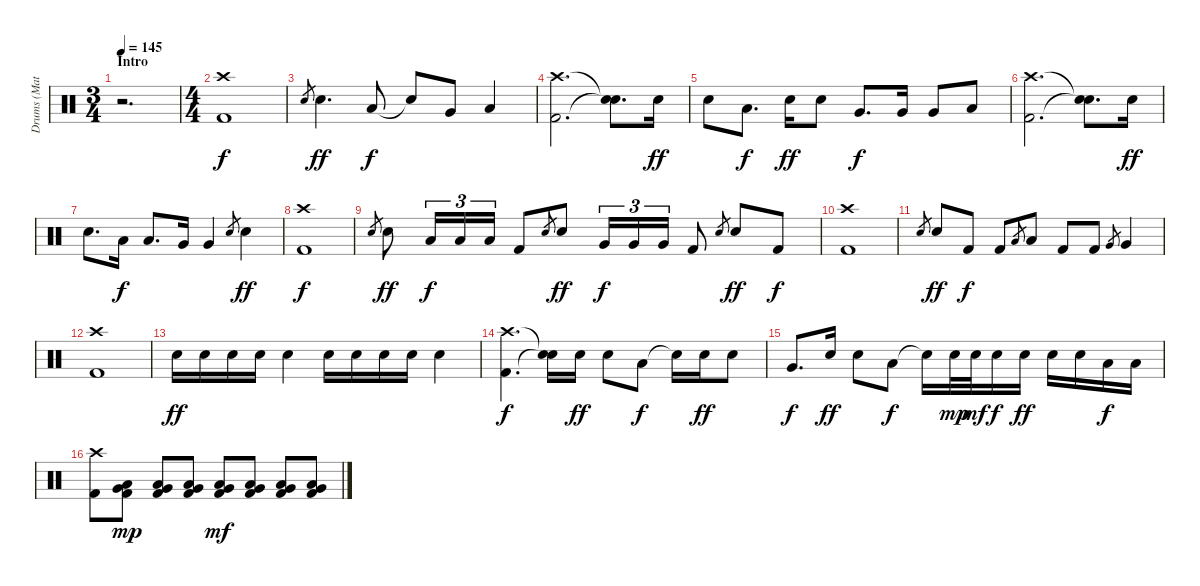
\track ("Drums (Matt)" "Drums (Mat") {instrument percussion}
\staff {score}
\articulation defaults
\ts (3 4)
\section ("" "Intro")
\tempo 145
\clef neutral
\ks c
r.2{d dy f} |
\ts (4 4)
("Crash high (hit)" "Kick (hit) 2").1 |
"Snare (hit) 2".8{gr} "Snare (hit) 2".4{d dy ff} "Low Tom (hit)".8{dy f} "Snare (hit)"{t}.8 "Very Low Tom (hit)".8 "Low Floor Tom (hit)".4 |
("Crash high (hit)" "Kick (hit) 2").2{d} ("Snare (hit)"{t} "Snare (hit)"{t}).8{d} "Snare (hit) 2".16{dy ff} |
"Snare (hit) 2".8 "Low Tom (hit)".8{d dy f} "Snare (hit) 2".16{dy ff} "Snare (hit) 2".8 "Very Low Tom (hit)".8{d dy f} "Very Low Tom (hit)".16 "Very Low Tom (hit)".8 "Low Floor Tom (hit)".8 |
("Crash high (hit)" "Kick (hit) 2").2{d} ("Snare (hit)"{t} "Snare (hit)"{t}).8{d} "Snare (hit) 2".16{dy ff} |
"Snare (hit) 2".8{d} "Low Tom (hit)".16{dy f} "Low Tom (hit)".8{d} "Very Low Tom (hit)".16 "Very Low Tom (hit)".4 "Snare (hit) 2".8{gr} "Snare (hit) 2".4{dy ff} |
("Crash high (hit)" "Kick (hit) 2").1{dy f} |
"Snare (hit) 2".8{gr} "Snare (hit) 2".8{dy ff} "Low Tom (hit)".16{tu (3 2) dy f} "Low Tom (hit)".16{tu (3 2)} "Low Tom (hit)".16{tu (3 2)} "Kick (hit) 2".8 "Snare (hit) 2".8{gr} "Snare (hit) 2".8{dy ff} "Very Low Tom (hit)".16{tu (3 2) dy f} "Very Low Tom (hit)".16{tu (3 2)} "Very Low Tom (hit)".16{tu (3 2)} "Kick (hit) 2".8 "Snare (hit) 2".8{gr} "Snare (hit) 2".8{dy ff} "Kick (hit) 2".8{dy f} |
("Crash high (hit)" "Kick (hit) 2").1 |
"Snare (hit) 2".8{gr} "Snare (hit) 2".8{dy ff} "Kick (hit) 2".8{dy f} "Kick (hit) 2".8 "Low Tom (hit)".8{gr} "Low Tom (hit)".8 "Kick (hit) 2".8 "Kick (hit) 2".8 "Very Low Tom (hit)".8{gr} "Very Low Tom (hit)".4 |
("Crash high (hit)" "Kick (hit) 2").1 |
"Snare (hit) 2".16{dy ff} "Snare (hit) 2".16 "Snare (hit) 2".16 "Snare (hit) 2".16 "Snare (hit) 2".4 "Snare (hit) 2".16 "Snare (hit) 2".16 "Snare (hit) 2".16 "Snare (hit) 2".16 "Snare (hit) 2".4 |
("Crash high (hit)" "Kick (hit) 2").4{d dy f} ("Snare (hit)"{t} "Snare (hit)"{t}).16 "Snare (hit) 2".16{dy ff} "Snare (hit) 2".8 "Low Tom (hit)".8{dy f} "Snare (hit)"{t}.16 "Snare (hit) 2".16{dy ff} "Snare (hit) 2".8 |
"Very Low Tom (hit)".8{d dy f} "Snare (hit) 2".16{dy ff} "Snare (hit) 2".8 "Low Floor Tom (hit)".8{dy f} "Snare (hit)"{t}.16 "Snare (hit) 2".32{dy mp} "Snare (hit) 2".32{dy mf} "Snare (hit) 2".16{dy f} "Snare (hit) 2".16{dy ff} "Snare (hit) 2".16 "Snare (hit) 2".16 "Low Floor Tom (hit)".16{dy f} "Low Floor Tom (hit)".16 |
("Crash high (hit)" "Kick (hit) 2").8 ("Low Tom (hit)" "Very Low Tom (hit)" "Kick (hit) 2").8{dy mp} ("Low Tom (hit)" "Very Low Tom (hit)" "Kick (hit) 2").8 ("Low Tom (hit)" "Very Low Tom (hit)" "Kick (hit) 2").8 ("Low Tom (hit)" "Very Low Tom (hit)" "Kick (hit) 2").8{dy mf} ("Low Tom (hit)" "Very Low Tom (hit)" "Kick (hit) 2").8 ("Low Tom (hit)" "Very Low Tom (hit)" "Kick (hit) 2").8 ("Low Tom (hit)" "Very Low Tom (hit)" "Kick (hit) 2").8
